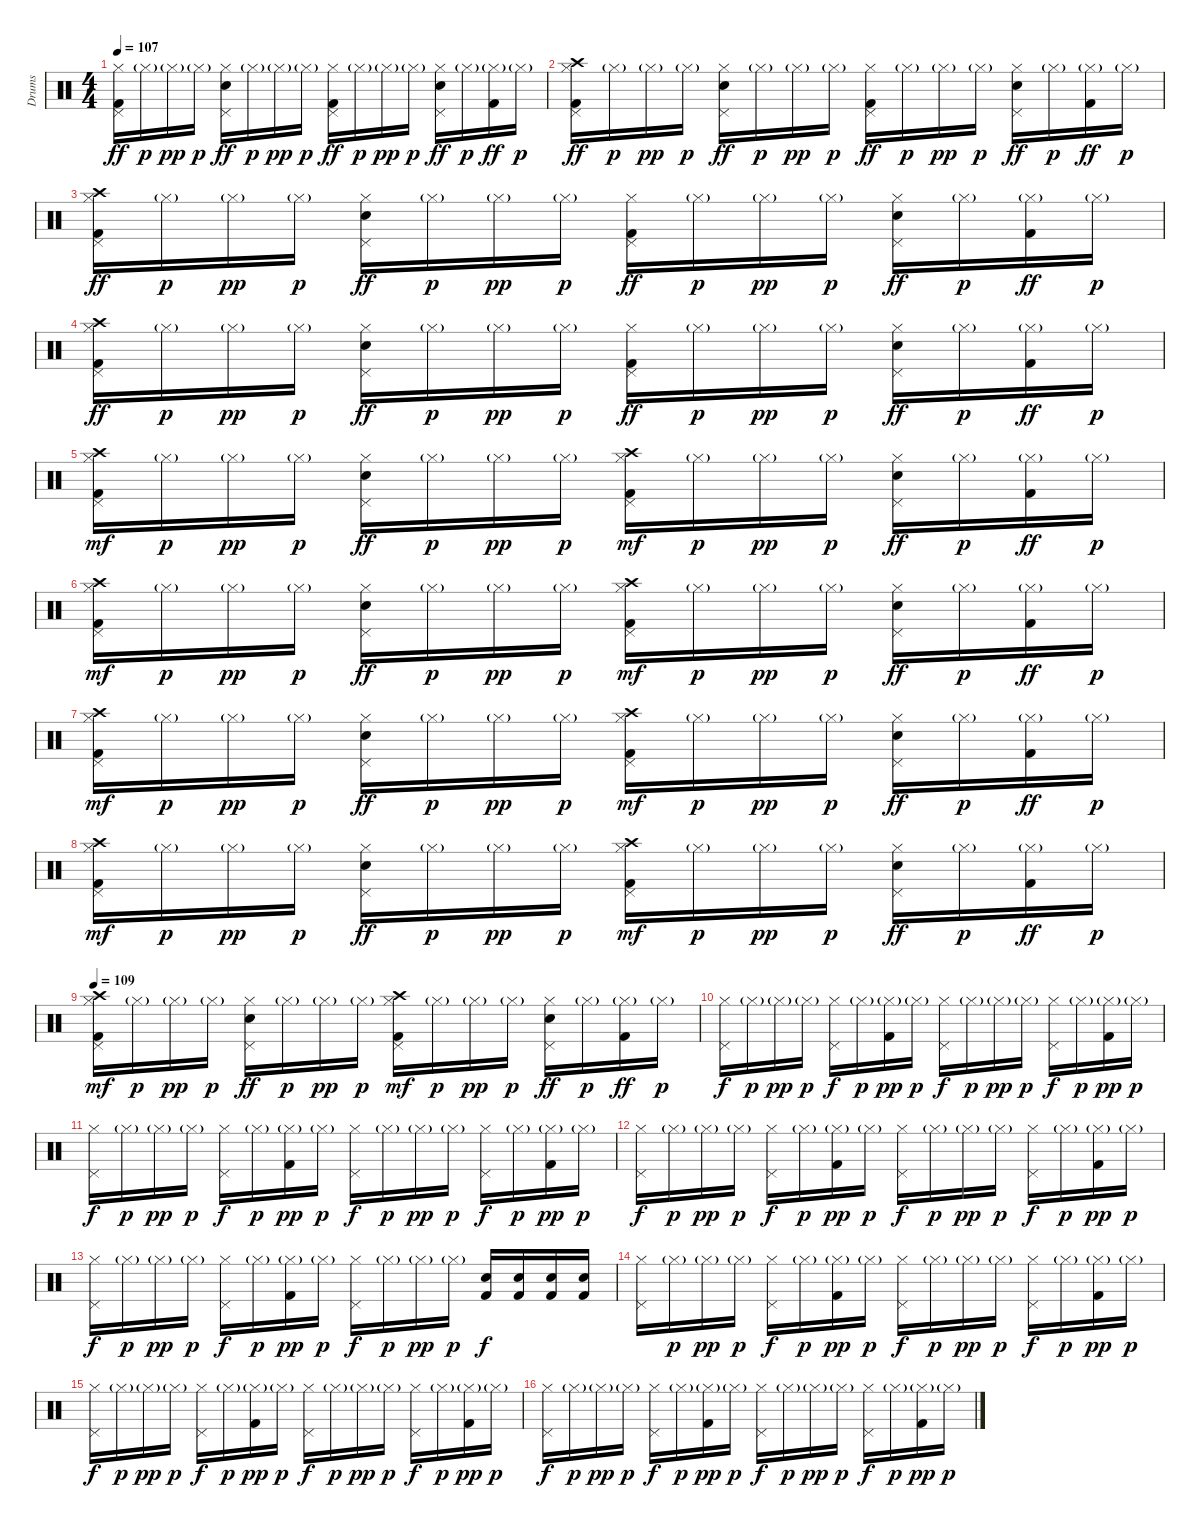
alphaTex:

\track ("Drums" "Drums") {instrument percussion}
\staff {score}
\articulation defaults
\ts (4 4)
\tempo 107
\clef neutral
\ks c
("Hi-Hat (closed)" "Pedal Hi-Hat (hit)" "Kick (hit) 2").16{dy ff} "Hi-Hat (closed)"{g}.16{dy p} "Hi-Hat (closed)"{g}.16{dy pp} "Hi-Hat (closed)"{g}.16{dy p} ("Hi-Hat (closed)" "Pedal Hi-Hat (hit)" "Electric Snare (hit)").16{dy ff} "Hi-Hat (closed)"{g}.16{dy p} "Hi-Hat (closed)"{g}.16{dy pp} "Hi-Hat (closed)"{g}.16{dy p} ("Hi-Hat (closed)" "Pedal Hi-Hat (hit)" "Kick (hit) 2").16{dy ff} "Hi-Hat (closed)"{g}.16{dy p} "Hi-Hat (closed)"{g}.16{dy pp} "Hi-Hat (closed)"{g}.16{dy p} ("Hi-Hat (closed)" "Pedal Hi-Hat (hit)" "Electric Snare (hit)").16{dy ff} "Hi-Hat (closed)"{g}.16{dy p} ("Hi-Hat (closed)"{g} "Kick (hit) 2").16{dy ff} "Hi-Hat (closed)"{g}.16{dy p} |
("Hi-Hat (closed)" "Pedal Hi-Hat (hit)" "Kick (hit) 2" "Crash high (hit)").16{dy ff} "Hi-Hat (closed)"{g}.16{dy p} "Hi-Hat (closed)"{g}.16{dy pp} "Hi-Hat (closed)"{g}.16{dy p} ("Hi-Hat (closed)" "Pedal Hi-Hat (hit)" "Electric Snare (hit)").16{dy ff} "Hi-Hat (closed)"{g}.16{dy p} "Hi-Hat (closed)"{g}.16{dy pp} "Hi-Hat (closed)"{g}.16{dy p} ("Hi-Hat (closed)" "Pedal Hi-Hat (hit)" "Kick (hit) 2").16{dy ff} "Hi-Hat (closed)"{g}.16{dy p} "Hi-Hat (closed)"{g}.16{dy pp} "Hi-Hat (closed)"{g}.16{dy p} ("Hi-Hat (closed)" "Pedal Hi-Hat (hit)" "Electric Snare (hit)").16{dy ff} "Hi-Hat (closed)"{g}.16{dy p} ("Hi-Hat (closed)"{g} "Kick (hit) 2").16{dy ff} "Hi-Hat (closed)"{g}.16{dy p} |
("Hi-Hat (closed)" "Pedal Hi-Hat (hit)" "Kick (hit) 2" "Crash high (hit)").16{dy ff} "Hi-Hat (closed)"{g}.16{dy p} "Hi-Hat (closed)"{g}.16{dy pp} "Hi-Hat (closed)"{g}.16{dy p} ("Hi-Hat (closed)" "Pedal Hi-Hat (hit)" "Electric Snare (hit)").16{dy ff} "Hi-Hat (closed)"{g}.16{dy p} "Hi-Hat (closed)"{g}.16{dy pp} "Hi-Hat (closed)"{g}.16{dy p} ("Hi-Hat (closed)" "Pedal Hi-Hat (hit)" "Kick (hit) 2").16{dy ff} "Hi-Hat (closed)"{g}.16{dy p} "Hi-Hat (closed)"{g}.16{dy pp} "Hi-Hat (closed)"{g}.16{dy p} ("Hi-Hat (closed)" "Pedal Hi-Hat (hit)" "Electric Snare (hit)").16{dy ff} "Hi-Hat (closed)"{g}.16{dy p} ("Hi-Hat (closed)"{g} "Kick (hit) 2").16{dy ff} "Hi-Hat (closed)"{g}.16{dy p} |
("Hi-Hat (closed)" "Pedal Hi-Hat (hit)" "Kick (hit) 2" "Crash high (hit)").16{dy ff} "Hi-Hat (closed)"{g}.16{dy p} "Hi-Hat (closed)"{g}.16{dy pp} "Hi-Hat (closed)"{g}.16{dy p} ("Hi-Hat (closed)" "Pedal Hi-Hat (hit)" "Electric Snare (hit)").16{dy ff} "Hi-Hat (closed)"{g}.16{dy p} "Hi-Hat (closed)"{g}.16{dy pp} "Hi-Hat (closed)"{g}.16{dy p} ("Hi-Hat (closed)" "Pedal Hi-Hat (hit)" "Kick (hit) 2").16{dy ff} "Hi-Hat (closed)"{g}.16{dy p} "Hi-Hat (closed)"{g}.16{dy pp} "Hi-Hat (closed)"{g}.16{dy p} ("Hi-Hat (closed)" "Pedal Hi-Hat (hit)" "Electric Snare (hit)").16{dy ff} "Hi-Hat (closed)"{g}.16{dy p} ("Hi-Hat (closed)"{g} "Kick (hit) 2").16{dy ff} "Hi-Hat (closed)"{g}.16{dy p} |
("Hi-Hat (closed)" "Pedal Hi-Hat (hit)" "Kick (hit) 2" "Crash high (hit)").16{dy mf} "Hi-Hat (closed)"{g}.16{dy p} "Hi-Hat (closed)"{g}.16{dy pp} "Hi-Hat (closed)"{g}.16{dy p} ("Hi-Hat (closed)" "Pedal Hi-Hat (hit)" "Electric Snare (hit)").16{dy ff} "Hi-Hat (closed)"{g}.16{dy p} "Hi-Hat (closed)"{g}.16{dy pp} "Hi-Hat (closed)"{g}.16{dy p} ("Hi-Hat (closed)" "Pedal Hi-Hat (hit)" "Kick (hit) 2" "Crash high (hit)").16{dy mf} "Hi-Hat (closed)"{g}.16{dy p} "Hi-Hat (closed)"{g}.16{dy pp} "Hi-Hat (closed)"{g}.16{dy p} ("Hi-Hat (closed)" "Pedal Hi-Hat (hit)" "Electric Snare (hit)").16{dy ff} "Hi-Hat (closed)"{g}.16{dy p} ("Hi-Hat (closed)"{g} "Kick (hit) 2").16{dy ff} "Hi-Hat (closed)"{g}.16{dy p} |
("Hi-Hat (closed)" "Pedal Hi-Hat (hit)" "Kick (hit) 2" "Crash high (hit)").16{dy mf} "Hi-Hat (closed)"{g}.16{dy p} "Hi-Hat (closed)"{g}.16{dy pp} "Hi-Hat (closed)"{g}.16{dy p} ("Hi-Hat (closed)" "Pedal Hi-Hat (hit)" "Electric Snare (hit)").16{dy ff} "Hi-Hat (closed)"{g}.16{dy p} "Hi-Hat (closed)"{g}.16{dy pp} "Hi-Hat (closed)"{g}.16{dy p} ("Hi-Hat (closed)" "Pedal Hi-Hat (hit)" "Kick (hit) 2" "Crash high (hit)").16{dy mf} "Hi-Hat (closed)"{g}.16{dy p} "Hi-Hat (closed)"{g}.16{dy pp} "Hi-Hat (closed)"{g}.16{dy p} ("Hi-Hat (closed)" "Pedal Hi-Hat (hit)" "Electric Snare (hit)").16{dy ff} "Hi-Hat (closed)"{g}.16{dy p} ("Hi-Hat (closed)"{g} "Kick (hit) 2").16{dy ff} "Hi-Hat (closed)"{g}.16{dy p} |
("Hi-Hat (closed)" "Pedal Hi-Hat (hit)" "Kick (hit) 2" "Crash high (hit)").16{dy mf} "Hi-Hat (closed)"{g}.16{dy p} "Hi-Hat (closed)"{g}.16{dy pp} "Hi-Hat (closed)"{g}.16{dy p} ("Hi-Hat (closed)" "Pedal Hi-Hat (hit)" "Electric Snare (hit)").16{dy ff} "Hi-Hat (closed)"{g}.16{dy p} "Hi-Hat (closed)"{g}.16{dy pp} "Hi-Hat (closed)"{g}.16{dy p} ("Hi-Hat (closed)" "Pedal Hi-Hat (hit)" "Kick (hit) 2" "Crash high (hit)").16{dy mf} "Hi-Hat (closed)"{g}.16{dy p} "Hi-Hat (closed)"{g}.16{dy pp} "Hi-Hat (closed)"{g}.16{dy p} ("Hi-Hat (closed)" "Pedal Hi-Hat (hit)" "Electric Snare (hit)").16{dy ff} "Hi-Hat (closed)"{g}.16{dy p} ("Hi-Hat (closed)"{g} "Kick (hit) 2").16{dy ff} "Hi-Hat (closed)"{g}.16{dy p} |
("Hi-Hat (closed)" "Pedal Hi-Hat (hit)" "Kick (hit) 2" "Crash high (hit)").16{dy mf} "Hi-Hat (closed)"{g}.16{dy p} "Hi-Hat (closed)"{g}.16{dy pp} "Hi-Hat (closed)"{g}.16{dy p} ("Hi-Hat (closed)" "Pedal Hi-Hat (hit)" "Electric Snare (hit)").16{dy ff} "Hi-Hat (closed)"{g}.16{dy p} "Hi-Hat (closed)"{g}.16{dy pp} "Hi-Hat (closed)"{g}.16{dy p} ("Hi-Hat (closed)" "Pedal Hi-Hat (hit)" "Kick (hit) 2" "Crash high (hit)").16{dy mf} "Hi-Hat (closed)"{g}.16{dy p} "Hi-Hat (closed)"{g}.16{dy pp} "Hi-Hat (closed)"{g}.16{dy p} ("Hi-Hat (closed)" "Pedal Hi-Hat (hit)" "Electric Snare (hit)").16{dy ff} "Hi-Hat (closed)"{g}.16{dy p} ("Hi-Hat (closed)"{g} "Kick (hit) 2").16{dy ff} "Hi-Hat (closed)"{g}.16{dy p} |
\tempo 109
("Hi-Hat (closed)" "Pedal Hi-Hat (hit)" "Kick (hit) 2" "Crash high (hit)").16{dy mf} "Hi-Hat (closed)"{g}.16{dy p} "Hi-Hat (closed)"{g}.16{dy pp} "Hi-Hat (closed)"{g}.16{dy p} ("Hi-Hat (closed)" "Pedal Hi-Hat (hit)" "Electric Snare (hit)").16{dy ff} "Hi-Hat (closed)"{g}.16{dy p} "Hi-Hat (closed)"{g}.16{dy pp} "Hi-Hat (closed)"{g}.16{dy p} ("Hi-Hat (closed)" "Pedal Hi-Hat (hit)" "Kick (hit) 2" "Crash high (hit)").16{dy mf} "Hi-Hat (closed)"{g}.16{dy p} "Hi-Hat (closed)"{g}.16{dy pp} "Hi-Hat (closed)"{g}.16{dy p} ("Hi-Hat (closed)" "Pedal Hi-Hat (hit)" "Electric Snare (hit)").16{dy ff} "Hi-Hat (closed)"{g}.16{dy p} ("Hi-Hat (closed)"{g} "Kick (hit) 2").16{dy ff} "Hi-Hat (closed)"{g}.16{dy p} |
("Hi-Hat (closed)" "Pedal Hi-Hat (hit)").16{dy f} "Hi-Hat (closed)"{g}.16{dy p} "Hi-Hat (closed)"{g}.16{dy pp} "Hi-Hat (closed)"{g}.16{dy p} ("Hi-Hat (closed)" "Pedal Hi-Hat (hit)").16{dy f} "Hi-Hat (closed)"{g}.16{dy p} ("Hi-Hat (closed)"{g} "Kick (hit) 2").16{dy pp} "Hi-Hat (closed)"{g}.16{dy p} ("Hi-Hat (closed)" "Pedal Hi-Hat (hit)").16{dy f} "Hi-Hat (closed)"{g}.16{dy p} "Hi-Hat (closed)"{g}.16{dy pp} "Hi-Hat (closed)"{g}.16{dy p} ("Hi-Hat (closed)" "Pedal Hi-Hat (hit)").16{dy f} "Hi-Hat (closed)"{g}.16{dy p} ("Hi-Hat (closed)"{g} "Kick (hit) 2").16{dy pp} "Hi-Hat (closed)"{g}.16{dy p} |
("Hi-Hat (closed)" "Pedal Hi-Hat (hit)").16{dy f} "Hi-Hat (closed)"{g}.16{dy p} "Hi-Hat (closed)"{g}.16{dy pp} "Hi-Hat (closed)"{g}.16{dy p} ("Hi-Hat (closed)" "Pedal Hi-Hat (hit)").16{dy f} "Hi-Hat (closed)"{g}.16{dy p} ("Hi-Hat (closed)"{g} "Kick (hit) 2").16{dy pp} "Hi-Hat (closed)"{g}.16{dy p} ("Hi-Hat (closed)" "Pedal Hi-Hat (hit)").16{dy f} "Hi-Hat (closed)"{g}.16{dy p} "Hi-Hat (closed)"{g}.16{dy pp} "Hi-Hat (closed)"{g}.16{dy p} ("Hi-Hat (closed)" "Pedal Hi-Hat (hit)").16{dy f} "Hi-Hat (closed)"{g}.16{dy p} ("Hi-Hat (closed)"{g} "Kick (hit) 2").16{dy pp} "Hi-Hat (closed)"{g}.16{dy p} |
("Hi-Hat (closed)" "Pedal Hi-Hat (hit)").16{dy f} "Hi-Hat (closed)"{g}.16{dy p} "Hi-Hat (closed)"{g}.16{dy pp} "Hi-Hat (closed)"{g}.16{dy p} ("Hi-Hat (closed)" "Pedal Hi-Hat (hit)").16{dy f} "Hi-Hat (closed)"{g}.16{dy p} ("Hi-Hat (closed)"{g} "Kick (hit) 2").16{dy pp} "Hi-Hat (closed)"{g}.16{dy p} ("Hi-Hat (closed)" "Pedal Hi-Hat (hit)").16{dy f} "Hi-Hat (closed)"{g}.16{dy p} "Hi-Hat (closed)"{g}.16{dy pp} "Hi-Hat (closed)"{g}.16{dy p} ("Hi-Hat (closed)" "Pedal Hi-Hat (hit)").16{dy f} "Hi-Hat (closed)"{g}.16{dy p} ("Hi-Hat (closed)"{g} "Kick (hit) 2").16{dy pp} "Hi-Hat (closed)"{g}.16{dy p} |
("Hi-Hat (closed)" "Pedal Hi-Hat (hit)").16{dy f} "Hi-Hat (closed)"{g}.16{dy p} "Hi-Hat (closed)"{g}.16{dy pp} "Hi-Hat (closed)"{g}.16{dy p} ("Hi-Hat (closed)" "Pedal Hi-Hat (hit)").16{dy f} "Hi-Hat (closed)"{g}.16{dy p} ("Hi-Hat (closed)"{g} "Kick (hit) 2").16{dy pp} "Hi-Hat (closed)"{g}.16{dy p} ("Hi-Hat (closed)" "Pedal Hi-Hat (hit)").16{dy f} "Hi-Hat (closed)"{g}.16{dy p} "Hi-Hat (closed)"{g}.16{dy pp} "Hi-Hat (closed)"{g}.16{dy p} ("Kick (hit) 2" "Electric Snare (hit)").16{dy f} ("Kick (hit) 2" "Electric Snare (hit)").16 ("Kick (hit) 2" "Electric Snare (hit)").16 ("Kick (hit) 2" "Electric Snare (hit)").16 |
("Hi-Hat (closed)" "Pedal Hi-Hat (hit)").16 "Hi-Hat (closed)"{g}.16{dy p} "Hi-Hat (closed)"{g}.16{dy pp} "Hi-Hat (closed)"{g}.16{dy p} ("Hi-Hat (closed)" "Pedal Hi-Hat (hit)").16{dy f} "Hi-Hat (closed)"{g}.16{dy p} ("Hi-Hat (closed)"{g} "Kick (hit) 2").16{dy pp} "Hi-Hat (closed)"{g}.16{dy p} ("Hi-Hat (closed)" "Pedal Hi-Hat (hit)").16{dy f} "Hi-Hat (closed)"{g}.16{dy p} "Hi-Hat (closed)"{g}.16{dy pp} "Hi-Hat (closed)"{g}.16{dy p} ("Hi-Hat (closed)" "Pedal Hi-Hat (hit)").16{dy f} "Hi-Hat (closed)"{g}.16{dy p} ("Hi-Hat (closed)"{g} "Kick (hit) 2").16{dy pp} "Hi-Hat (closed)"{g}.16{dy p} |
("Hi-Hat (closed)" "Pedal Hi-Hat (hit)").16{dy f} "Hi-Hat (closed)"{g}.16{dy p} "Hi-Hat (closed)"{g}.16{dy pp} "Hi-Hat (closed)"{g}.16{dy p} ("Hi-Hat (closed)" "Pedal Hi-Hat (hit)").16{dy f} "Hi-Hat (closed)"{g}.16{dy p} ("Hi-Hat (closed)"{g} "Kick (hit) 2").16{dy pp} "Hi-Hat (closed)"{g}.16{dy p} ("Hi-Hat (closed)" "Pedal Hi-Hat (hit)").16{dy f} "Hi-Hat (closed)"{g}.16{dy p} "Hi-Hat (closed)"{g}.16{dy pp} "Hi-Hat (closed)"{g}.16{dy p} ("Hi-Hat (closed)" "Pedal Hi-Hat (hit)").16{dy f} "Hi-Hat (closed)"{g}.16{dy p} ("Hi-Hat (closed)"{g} "Kick (hit) 2").16{dy pp} "Hi-Hat (closed)"{g}.16{dy p} |
("Hi-Hat (closed)" "Pedal Hi-Hat (hit)").16{dy f} "Hi-Hat (closed)"{g}.16{dy p} "Hi-Hat (closed)"{g}.16{dy pp} "Hi-Hat (closed)"{g}.16{dy p} ("Hi-Hat (closed)" "Pedal Hi-Hat (hit)").16{dy f} "Hi-Hat (closed)"{g}.16{dy p} ("Hi-Hat (closed)"{g} "Kick (hit) 2").16{dy pp} "Hi-Hat (closed)"{g}.16{dy p} ("Hi-Hat (closed)" "Pedal Hi-Hat (hit)").16{dy f} "Hi-Hat (closed)"{g}.16{dy p} "Hi-Hat (closed)"{g}.16{dy pp} "Hi-Hat (closed)"{g}.16{dy p} ("Hi-Hat (closed)" "Pedal Hi-Hat (hit)").16{dy f} "Hi-Hat (closed)"{g}.16{dy p} ("Hi-Hat (closed)"{g} "Kick (hit) 2").16{dy pp} "Hi-Hat (closed)"{g}.16{dy p}
